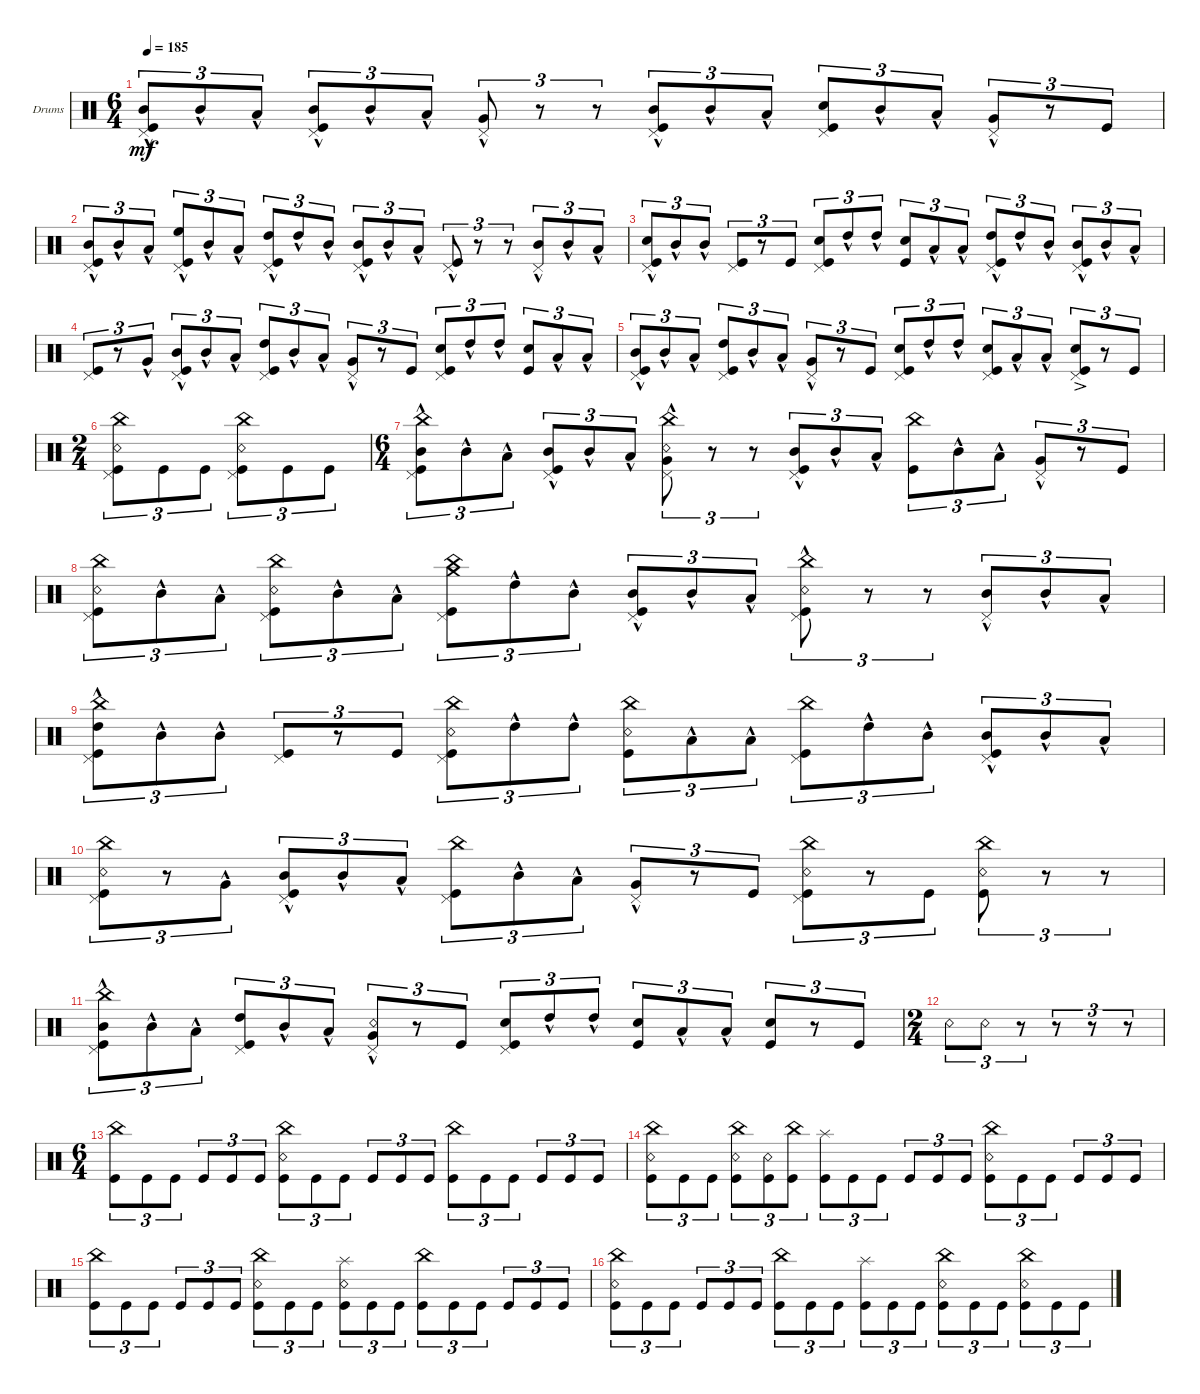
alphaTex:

\defaultSystemsLayout 4
\bracketExtendMode groupsimilarinstruments
\firstSystemTrackNameOrientation horizontal
\otherSystemsTrackNameOrientation horizontal
\track ("Drumkit" "Drums") {instrument percussion}
\staff {score}
\articulation defaults
\ts (6 4)
\tempo 185
\clef neutral
\ks c
("Mid Tom (hit)"{hac} "Kick (hit)" "Pedal Hi-Hat (hit)").8{tu (3 2) dy mf} "Mid Tom (hit)"{hac}.8{tu (3 2)} "Low Tom (hit)"{hac}.8{tu (3 2)} ("Mid Tom (hit)"{hac} "Kick (hit)" "Pedal Hi-Hat (hit)").8{tu (3 2)} "Mid Tom (hit)"{hac}.8{tu (3 2)} "Low Tom (hit)"{hac}.8{tu (3 2)} ("Very Low Tom (hit)"{hac} "Pedal Hi-Hat (hit)").8{tu (3 2)} r.8{tu (3 2)} r.8{tu (3 2)} ("Mid Tom (hit)"{hac} "Kick (hit)" "Pedal Hi-Hat (hit)").8{tu (3 2)} "Mid Tom (hit)"{hac}.8{tu (3 2)} "Low Tom (hit)"{hac}.8{tu (3 2)} ("Kick (hit)" "Pedal Hi-Hat (hit)" "Snare (hit) 2").8{tu (3 2)} "Mid Tom (hit)"{hac}.8{tu (3 2)} "Low Tom (hit)"{hac}.8{tu (3 2)} ("Very Low Tom (hit)"{hac} "Pedal Hi-Hat (hit)").8{tu (3 2)} r.8{tu (3 2)} "Kick (hit)".8{tu (3 2)} |
("Mid Tom (hit)"{hac} "Kick (hit)" "Pedal Hi-Hat (hit)").8{tu (3 2)} "Mid Tom (hit)"{hac}.8{tu (3 2)} "Low Tom (hit)"{hac}.8{tu (3 2)} ("Kick (hit)" "High Floor Tom (hit)"{hac} "Pedal Hi-Hat (hit)").8{tu (3 2)} "Mid Tom (hit)"{hac}.8{tu (3 2)} "Low Tom (hit)"{hac}.8{tu (3 2)} ("High Tom (hit)"{hac} "Kick (hit)" "Pedal Hi-Hat (hit)").8{tu (3 2)} "High Tom (hit)"{hac}.8{tu (3 2)} "Mid Tom (hit)"{hac}.8{tu (3 2)} ("Mid Tom (hit)"{hac} "Kick (hit)" "Pedal Hi-Hat (hit)").8{tu (3 2)} "Mid Tom (hit)"{hac}.8{tu (3 2)} "Low Tom (hit)"{hac}.8{tu (3 2)} ("Kick (hit)"{hac} "Pedal Hi-Hat (hit)").8{tu (3 2)} r.8{tu (3 2)} r.8{tu (3 2)} ("Mid Tom (hit)"{hac} "Pedal Hi-Hat (hit)").8{tu (3 2)} "Mid Tom (hit)"{hac}.8{tu (3 2)} "Low Tom (hit)"{hac}.8{tu (3 2)} |
("Snare (hit) 2"{hac} "Kick (hit)"{hac} "Pedal Hi-Hat (hit)"{hac}).8{tu (3 2)} "Mid Tom (hit)"{hac}.8{tu (3 2)} "Mid Tom (hit)"{hac}.8{tu (3 2)} ("Kick (hit)" "Pedal Hi-Hat (hit)").8{tu (3 2)} r.8{tu (3 2)} "Kick (hit)".8{tu (3 2)} ("Snare (hit) 2" "Kick (hit)" "Pedal Hi-Hat (hit)").8{tu (3 2)} "High Tom (hit)"{hac}.8{tu (3 2)} "High Tom (hit)"{hac}.8{tu (3 2)} ("Kick (hit)" "Snare (hit) 2").8{tu (3 2)} "Low Tom (hit)"{hac}.8{tu (3 2)} "Low Tom (hit)"{hac}.8{tu (3 2)} ("High Tom (hit)"{hac} "Kick (hit)" "Pedal Hi-Hat (hit)").8{tu (3 2)} "High Tom (hit)"{hac}.8{tu (3 2)} "Mid Tom (hit)"{hac}.8{tu (3 2)} ("Mid Tom (hit)"{hac} "Kick (hit)" "Pedal Hi-Hat (hit)").8{tu (3 2)} "Mid Tom (hit)"{hac}.8{tu (3 2)} "Low Tom (hit)"{hac}.8{tu (3 2)} |
("Kick (hit)" "Pedal Hi-Hat (hit)").8{tu (3 2)} r.8{tu (3 2)} "Very Low Tom (hit)"{hac}.8{tu (3 2)} ("Mid Tom (hit)"{hac} "Kick (hit)" "Pedal Hi-Hat (hit)").8{tu (3 2)} "Mid Tom (hit)"{hac}.8{tu (3 2)} "Low Tom (hit)"{hac}.8{tu (3 2)} ("Kick (hit)" "Pedal Hi-Hat (hit)" "High Tom (hit)").8{tu (3 2)} "Mid Tom (hit)"{hac}.8{tu (3 2)} "Low Tom (hit)"{hac}.8{tu (3 2)} ("Very Low Tom (hit)"{hac} "Pedal Hi-Hat (hit)").8{tu (3 2)} r.8{tu (3 2)} "Kick (hit)".8{tu (3 2)} ("Snare (hit) 2" "Kick (hit)" "Pedal Hi-Hat (hit)").8{tu (3 2)} "High Tom (hit)"{hac}.8{tu (3 2)} "High Tom (hit)"{hac}.8{tu (3 2)} ("Kick (hit)" "Snare (hit) 2").8{tu (3 2)} "Low Tom (hit)"{hac}.8{tu (3 2)} "Low Tom (hit)"{hac}.8{tu (3 2)} |
("Mid Tom (hit)"{hac} "Kick (hit)" "Pedal Hi-Hat (hit)").8{tu (3 2)} "Mid Tom (hit)"{hac}.8{tu (3 2)} "Low Tom (hit)"{hac}.8{tu (3 2)} ("Kick (hit)" "Pedal Hi-Hat (hit)" "High Tom (hit)").8{tu (3 2)} "Mid Tom (hit)"{hac}.8{tu (3 2)} "Low Tom (hit)"{hac}.8{tu (3 2)} ("Very Low Tom (hit)"{hac} "Pedal Hi-Hat (hit)").8{tu (3 2)} r.8{tu (3 2)} "Kick (hit)".8{tu (3 2)} ("Snare (hit) 2" "Kick (hit)" "Pedal Hi-Hat (hit)").8{tu (3 2)} "High Tom (hit)"{hac}.8{tu (3 2)} "High Tom (hit)"{hac}.8{tu (3 2)} ("Kick (hit)" "Snare (hit) 2" "Pedal Hi-Hat (hit)").8{tu (3 2)} "Low Tom (hit)"{hac}.8{tu (3 2)} "Low Tom (hit)"{hac}.8{tu (3 2)} ("Kick (hit)" "Snare (hit) 2"{ac} "Pedal Hi-Hat (hit)").8{tu (3 2)} r.8{tu (3 2)} "Kick (hit)".8{tu (3 2)} |
\ts (2 4)
("Snare (rim shot)" "Pedal Hi-Hat (hit)" "China (hit)" "Kick (hit)").8{tu (3 2)} "Kick (hit)".8{tu (3 2)} "Kick (hit)".8{tu (3 2)} ("Snare (rim shot)" "Pedal Hi-Hat (hit)" "China (hit)" "Kick (hit)").8{tu (3 2)} "Kick (hit)".8{tu (3 2)} "Kick (hit)".8{tu (3 2)} |
\ts (6 4)
("Mid Tom (hit)"{hac} "Kick (hit)" "Pedal Hi-Hat (hit)" "China (hit)").8{tu (3 2)} "Mid Tom (hit)"{hac}.8{tu (3 2)} "Low Tom (hit)"{hac}.8{tu (3 2)} ("Mid Tom (hit)"{hac} "Kick (hit)" "Pedal Hi-Hat (hit)").8{tu (3 2)} "Mid Tom (hit)"{hac}.8{tu (3 2)} "Low Tom (hit)"{hac}.8{tu (3 2)} ("Very Low Tom (hit)"{hac} "Pedal Hi-Hat (hit)" "China (hit)" "Snare (rim shot)").8{tu (3 2)} r.8{tu (3 2)} r.8{tu (3 2)} ("Mid Tom (hit)"{hac} "Kick (hit)" "Pedal Hi-Hat (hit)").8{tu (3 2)} "Mid Tom (hit)"{hac}.8{tu (3 2)} "Low Tom (hit)"{hac}.8{tu (3 2)} ("Kick (hit)" "China (hit)").8{tu (3 2)} "Mid Tom (hit)"{hac}.8{tu (3 2)} "Low Tom (hit)"{hac}.8{tu (3 2)} ("Very Low Tom (hit)"{hac} "Pedal Hi-Hat (hit)").8{tu (3 2)} r.8{tu (3 2)} "Kick (hit)".8{tu (3 2)} |
("Kick (hit)" "Pedal Hi-Hat (hit)" "China (hit)" "Snare (rim shot)").8{tu (3 2)} "Mid Tom (hit)"{hac}.8{tu (3 2)} "Low Tom (hit)"{hac}.8{tu (3 2)} ("Kick (hit)" "Pedal Hi-Hat (hit)" "China (hit)" "Snare (rim shot)").8{tu (3 2)} "Mid Tom (hit)"{hac}.8{tu (3 2)} "Low Tom (hit)"{hac}.8{tu (3 2)} ("Kick (hit)" "Pedal Hi-Hat (hit)" "China (hit)" "Crash medium (hit)").8{tu (3 2)} "High Tom (hit)"{hac}.8{tu (3 2)} "Mid Tom (hit)"{hac}.8{tu (3 2)} ("Mid Tom (hit)"{hac} "Kick (hit)" "Pedal Hi-Hat (hit)").8{tu (3 2)} "Mid Tom (hit)"{hac}.8{tu (3 2)} "Low Tom (hit)"{hac}.8{tu (3 2)} ("Kick (hit)"{hac} "Pedal Hi-Hat (hit)" "Snare (rim shot)" "China (hit)").8{tu (3 2)} r.8{tu (3 2)} r.8{tu (3 2)} ("Mid Tom (hit)"{hac} "Pedal Hi-Hat (hit)").8{tu (3 2)} "Mid Tom (hit)"{hac}.8{tu (3 2)} "Low Tom (hit)"{hac}.8{tu (3 2)} |
("Kick (hit)"{hac} "Pedal Hi-Hat (hit)"{hac} "High Tom (hit)" "China (hit)").8{tu (3 2)} "Mid Tom (hit)"{hac}.8{tu (3 2)} "Mid Tom (hit)"{hac}.8{tu (3 2)} ("Kick (hit)" "Pedal Hi-Hat (hit)").8{tu (3 2)} r.8{tu (3 2)} "Kick (hit)".8{tu (3 2)} ("Kick (hit)" "Pedal Hi-Hat (hit)" "China (hit)" "Snare (rim shot)").8{tu (3 2)} "High Tom (hit)"{hac}.8{tu (3 2)} "High Tom (hit)"{hac}.8{tu (3 2)} ("Kick (hit)" "Snare (rim shot)" "China (hit)").8{tu (3 2)} "Low Tom (hit)"{hac}.8{tu (3 2)} "Low Tom (hit)"{hac}.8{tu (3 2)} ("Kick (hit)" "Pedal Hi-Hat (hit)" "China (hit)").8{tu (3 2)} "High Tom (hit)"{hac}.8{tu (3 2)} "Mid Tom (hit)"{hac}.8{tu (3 2)} ("Mid Tom (hit)"{hac} "Kick (hit)" "Pedal Hi-Hat (hit)").8{tu (3 2)} "Mid Tom (hit)"{hac}.8{tu (3 2)} "Low Tom (hit)"{hac}.8{tu (3 2)} |
("Kick (hit)" "Pedal Hi-Hat (hit)" "China (hit)" "Snare (rim shot)").8{tu (3 2)} r.8{tu (3 2)} "Very Low Tom (hit)"{hac}.8{tu (3 2)} ("Mid Tom (hit)"{hac} "Kick (hit)" "Pedal Hi-Hat (hit)").8{tu (3 2)} "Mid Tom (hit)"{hac}.8{tu (3 2)} "Low Tom (hit)"{hac}.8{tu (3 2)} ("Kick (hit)" "Pedal Hi-Hat (hit)" "China (hit)").8{tu (3 2)} "Mid Tom (hit)"{hac}.8{tu (3 2)} "Low Tom (hit)"{hac}.8{tu (3 2)} ("Very Low Tom (hit)"{hac} "Pedal Hi-Hat (hit)").8{tu (3 2)} r.8{tu (3 2)} "Kick (hit)".8{tu (3 2)} ("Kick (hit)" "Pedal Hi-Hat (hit)" "China (hit)" "Snare (rim shot)").8{tu (3 2)} r.8{tu (3 2)} "Kick (hit)".8{tu (3 2)} ("Kick (hit)" "Snare (rim shot)" "China (hit)").8{tu (3 2)} r.8{tu (3 2)} r.8{tu (3 2)} |
("Mid Tom (hit)"{hac} "Kick (hit)" "Pedal Hi-Hat (hit)" "China (hit)").8{tu (3 2)} "Mid Tom (hit)"{hac}.8{tu (3 2)} "Low Tom (hit)"{hac}.8{tu (3 2)} ("Kick (hit)" "Pedal Hi-Hat (hit)" "High Tom (hit)").8{tu (3 2)} "Mid Tom (hit)"{hac}.8{tu (3 2)} "Low Tom (hit)"{hac}.8{tu (3 2)} ("Very Low Tom (hit)"{hac} "Pedal Hi-Hat (hit)" "Snare (rim shot)").8{tu (3 2)} r.8{tu (3 2)} "Kick (hit)".8{tu (3 2)} ("Snare (hit) 2" "Kick (hit)" "Pedal Hi-Hat (hit)").8{tu (3 2)} "High Tom (hit)"{hac}.8{tu (3 2)} "High Tom (hit)"{hac}.8{tu (3 2)} ("Kick (hit)" "Snare (hit) 2").8{tu (3 2)} "Low Tom (hit)"{hac}.8{tu (3 2)} "Low Tom (hit)"{hac}.8{tu (3 2)} ("Kick (hit)" "Snare (hit) 2").8{tu (3 2)} r.8{tu (3 2)} "Kick (hit)".8{tu (3 2)} |
\ts (2 4)
"Snare (rim shot)".8{tu (3 2)} "Snare (rim shot)".8{tu (3 2)} r.8{tu (3 2)} r.8{tu (3 2)} r.8{tu (3 2)} r.8{tu (3 2)} |
\ts (6 4)
("China (hit)" "Kick (hit)").8{tu (3 2)} "Kick (hit)".8{tu (3 2)} "Kick (hit)".8{tu (3 2)} "Kick (hit)".8{tu (3 2)} "Kick (hit)".8{tu (3 2)} "Kick (hit)".8{tu (3 2)} ("Kick (hit)" "Snare (rim shot)" "China (hit)").8{tu (3 2)} "Kick (hit)".8{tu (3 2)} "Kick (hit)".8{tu (3 2)} "Kick (hit)".8{tu (3 2)} "Kick (hit)".8{tu (3 2)} "Kick (hit)".8{tu (3 2)} ("Kick (hit)" "China (hit)").8{tu (3 2)} "Kick (hit)".8{tu (3 2)} "Kick (hit)".8{tu (3 2)} "Kick (hit)".8{tu (3 2)} "Kick (hit)".8{tu (3 2)} "Kick (hit)".8{tu (3 2)} |
("China (hit)" "Kick (hit)" "Snare (rim shot)").8{tu (3 2)} "Kick (hit)".8{tu (3 2)} "Kick (hit)".8{tu (3 2)} ("Kick (hit)" "Snare (rim shot)" "China (hit)").8{tu (3 2)} ("Kick (hit)" "Snare (rim shot)").8{tu (3 2)} ("Kick (hit)" "China (hit)").8{tu (3 2)} ("Kick (hit)" "Splash (hit)").8{tu (3 2)} "Kick (hit)".8{tu (3 2)} "Kick (hit)".8{tu (3 2)} "Kick (hit)".8{tu (3 2)} "Kick (hit)".8{tu (3 2)} "Kick (hit)".8{tu (3 2)} ("Kick (hit)" "China (hit)" "Snare (rim shot)").8{tu (3 2)} "Kick (hit)".8{tu (3 2)} "Kick (hit)".8{tu (3 2)} "Kick (hit)".8{tu (3 2)} "Kick (hit)".8{tu (3 2)} "Kick (hit)".8{tu (3 2)} |
("China (hit)" "Kick (hit)").8{tu (3 2)} "Kick (hit)".8{tu (3 2)} "Kick (hit)".8{tu (3 2)} "Kick (hit)".8{tu (3 2)} "Kick (hit)".8{tu (3 2)} "Kick (hit)".8{tu (3 2)} ("Kick (hit)" "Snare (rim shot)" "China (hit)").8{tu (3 2)} "Kick (hit)".8{tu (3 2)} "Kick (hit)".8{tu (3 2)} ("Kick (hit)" "Snare (rim shot)" "Splash (hit)").8{tu (3 2)} "Kick (hit)".8{tu (3 2)} "Kick (hit)".8{tu (3 2)} ("Kick (hit)" "China (hit)").8{tu (3 2)} "Kick (hit)".8{tu (3 2)} "Kick (hit)".8{tu (3 2)} "Kick (hit)".8{tu (3 2)} "Kick (hit)".8{tu (3 2)} "Kick (hit)".8{tu (3 2)} |
("China (hit)" "Kick (hit)" "Snare (rim shot)").8{tu (3 2)} "Kick (hit)".8{tu (3 2)} "Kick (hit)".8{tu (3 2)} "Kick (hit)".8{tu (3 2)} "Kick (hit)".8{tu (3 2)} "Kick (hit)".8{tu (3 2)} ("Kick (hit)" "China (hit)").8{tu (3 2)} "Kick (hit)".8{tu (3 2)} "Kick (hit)".8{tu (3 2)} ("Kick (hit)" "Splash (hit)").8{tu (3 2)} "Kick (hit)".8{tu (3 2)} "Kick (hit)".8{tu (3 2)} ("Kick (hit)" "China (hit)" "Snare (rim shot)").8{tu (3 2)} "Kick (hit)".8{tu (3 2)} "Kick (hit)".8{tu (3 2)} ("Kick (hit)" "Snare (rim shot)" "China (hit)").8{tu (3 2)} "Kick (hit)".8{tu (3 2)} "Kick (hit)".8{tu (3 2)}
